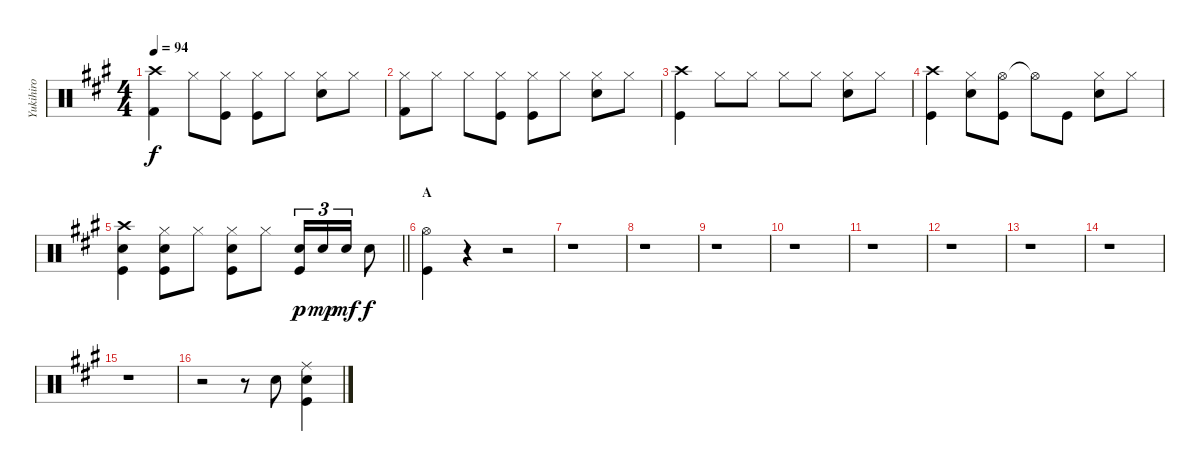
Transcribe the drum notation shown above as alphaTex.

\track ("Yukihiro" "Yukihiro") {instrument percussion}
\staff {score}
\articulation defaults
\ts (4 4)
\tempo 94
\clef neutral
\ks a
("Kick (hit) 2" "Crash high (hit)").4{dy f} "Hi-Hat (closed)".8 ("Kick (hit)" "Hi-Hat (closed)").8 ("Kick (hit)" "Hi-Hat (closed)").8 "Hi-Hat (closed)".8 ("Snare (hit) 2" "Hi-Hat (closed)").8 "Hi-Hat (closed)".8 |
("Kick (hit) 2" "Hi-Hat (closed)").8 "Hi-Hat (closed)".8 "Hi-Hat (closed)".8 ("Kick (hit)" "Hi-Hat (closed)").8 ("Kick (hit)" "Hi-Hat (closed)").8 "Hi-Hat (closed)".8 ("Snare (hit) 2" "Hi-Hat (closed)").8 "Hi-Hat (closed)".8 |
("Kick (hit)" "Crash high (hit)").4 "Hi-Hat (closed)".8 "Hi-Hat (closed)".8 "Hi-Hat (closed)".8 "Hi-Hat (closed)".8 ("Hi-Hat (closed)" "Snare (hit) 2").8 "Hi-Hat (closed)".8 |
("Kick (hit)" "Crash high (hit)").4 ("Snare (hit) 2" "Hi-Hat (closed)").8 ("Hi-Hat (open)" "Kick (hit)").8 "Hi-Hat (open)"{t}.8 "Kick (hit)".8 ("Snare (hit) 2" "Hi-Hat (closed)").8 "Hi-Hat (closed)".8 |
\barLineRight lightlight
("Kick (hit)" "Snare (hit) 2" "Crash high (hit)").4 ("Kick (hit)" "Snare (hit) 2" "Hi-Hat (closed)").8 "Hi-Hat (closed)".8 ("Hi-Hat (closed)" "Kick (hit)" "Snare (hit) 2").8 "Hi-Hat (closed)".8 ("Kick (hit)" "Snare (hit) 2").16{tu (3 2) dy p} "Snare (hit) 2".16{tu (3 2) dy mp} "Snare (hit) 2".16{tu (3 2) dy mf} "Snare (hit) 2".8{dy f} |
\section ("" "A")
("Kick (hit)" "Hi-Hat (open)").4 r.4 r.2 |
r.1 |
r.1 |
r.1 |
r.1 |
r.1 |
r.1 |
r.1 |
r.1 |
r.1 |
r.2 r.8 "Snare (hit) 2".8 ("Ride (middle)" "Snare (hit) 2" "Kick (hit)").4
